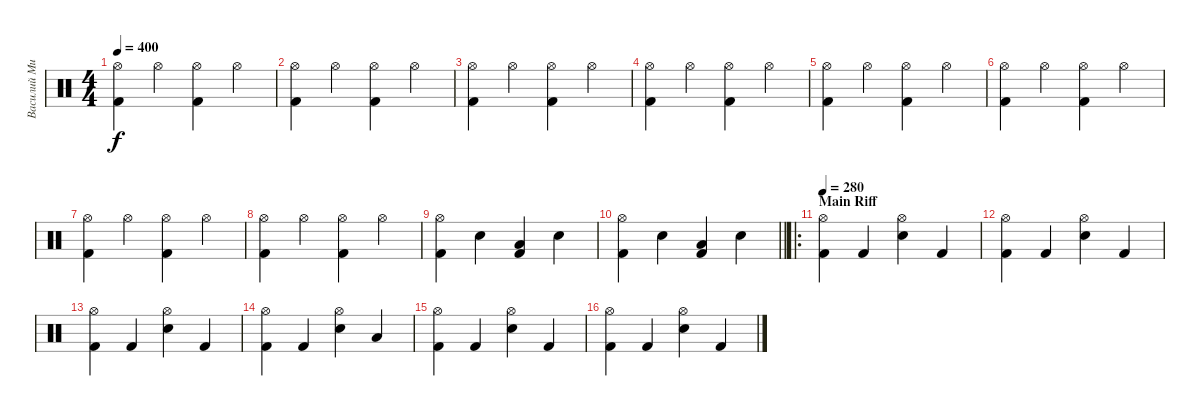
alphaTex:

\track ("Василий Михалыч-ударные" "Василий Ми") {instrument percussion}
\staff {score}
\articulation defaults
\ts (4 4)
\tempo 400
\clef neutral
\ks c
("Kick (hit) 2" "Hi-Hat (open)").4{dy f} "Hi-Hat (open)".4 ("Kick (hit) 2" "Hi-Hat (open)").4 "Hi-Hat (open)".4 |
("Kick (hit) 2" "Hi-Hat (open)").4 "Hi-Hat (open)".4 ("Kick (hit) 2" "Hi-Hat (open)").4 "Hi-Hat (open)".4 |
("Kick (hit) 2" "Hi-Hat (open)").4 "Hi-Hat (open)".4 ("Kick (hit) 2" "Hi-Hat (open)").4 "Hi-Hat (open)".4 |
("Kick (hit) 2" "Hi-Hat (open)").4 "Hi-Hat (open)".4 ("Kick (hit) 2" "Hi-Hat (open)").4 "Hi-Hat (open)".4 |
("Kick (hit) 2" "Hi-Hat (open)").4 "Hi-Hat (open)".4 ("Kick (hit) 2" "Hi-Hat (open)").4 "Hi-Hat (open)".4 |
("Kick (hit) 2" "Hi-Hat (open)").4 "Hi-Hat (open)".4 ("Kick (hit) 2" "Hi-Hat (open)").4 "Hi-Hat (open)".4 |
("Kick (hit) 2" "Hi-Hat (open)").4 "Hi-Hat (open)".4 ("Kick (hit) 2" "Hi-Hat (open)").4 "Hi-Hat (open)".4 |
("Kick (hit) 2" "Hi-Hat (open)").4 "Hi-Hat (open)".4 ("Kick (hit) 2" "Hi-Hat (open)").4 "Hi-Hat (open)".4 |
("Kick (hit) 2" "Hi-Hat (open)").4 "Snare (hit) 2".4 ("Kick (hit) 2" "Low Tom (hit)").4 "Snare (hit) 2".4 |
\barLineRight lightlight
("Kick (hit) 2" "Hi-Hat (open)").4 "Snare (hit) 2".4 ("Kick (hit) 2" "Low Tom (hit)").4 "Snare (hit) 2".4 |
\ro
\section ("" "Main Riff")
\tempo 280
("Kick (hit) 2" "Hi-Hat (open)").4 "Kick (hit) 2".4 ("Snare (hit) 2" "Hi-Hat (open)").4 "Kick (hit) 2".4 |
("Kick (hit) 2" "Hi-Hat (open)").4 "Kick (hit) 2".4 ("Snare (hit) 2" "Hi-Hat (open)").4 "Kick (hit) 2".4 |
("Kick (hit) 2" "Hi-Hat (open)").4 "Kick (hit) 2".4 ("Snare (hit) 2" "Hi-Hat (open)").4 "Kick (hit) 2".4 |
("Kick (hit) 2" "Hi-Hat (open)").4 "Kick (hit) 2".4 ("Snare (hit) 2" "Hi-Hat (open)").4 "Low Tom (hit)".4 |
("Kick (hit) 2" "Hi-Hat (open)").4 "Kick (hit) 2".4 ("Snare (hit) 2" "Hi-Hat (open)").4 "Kick (hit) 2".4 |
("Kick (hit) 2" "Hi-Hat (open)").4 "Kick (hit) 2".4 ("Snare (hit) 2" "Hi-Hat (open)").4 "Kick (hit) 2".4
